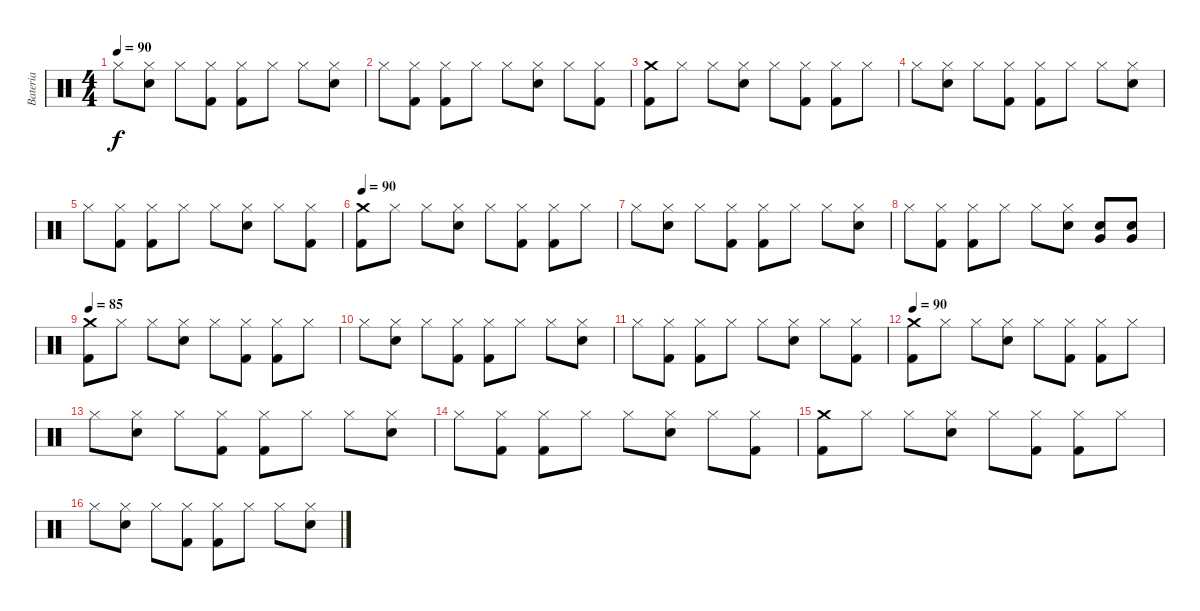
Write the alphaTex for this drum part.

\track ("Bateria" "Bateria") {instrument percussion}
\staff {score}
\articulation defaults
\ts (4 4)
\tempo 90
\clef neutral
\ks c "Hi-Hat (closed)".8{dy f}
("Hi-Hat (closed)" "Snare (hit) 2").8 "Hi-Hat (closed)".8 ("Hi-Hat (closed)" "Kick (hit) 2").8 ("Hi-Hat (closed)" "Kick (hit) 2").8 "Hi-Hat (closed)".8 "Hi-Hat (closed)".8 ("Hi-Hat (closed)" "Snare (hit) 2").8 |
"Hi-Hat (closed)".8 ("Hi-Hat (closed)" "Kick (hit) 2").8 ("Hi-Hat (closed)" "Kick (hit) 2").8 "Hi-Hat (closed)".8 "Hi-Hat (closed)".8 ("Hi-Hat (closed)" "Snare (hit) 2").8 "Hi-Hat (closed)".8 ("Hi-Hat (closed)" "Kick (hit) 2").8 |
("Crash medium (hit)" "Kick (hit) 2").8 "Hi-Hat (closed)".8 "Hi-Hat (closed)".8 ("Hi-Hat (closed)" "Snare (hit) 2").8 "Hi-Hat (closed)".8 ("Hi-Hat (closed)" "Kick (hit) 2").8 ("Hi-Hat (closed)" "Kick (hit) 2").8 "Hi-Hat (closed)".8 |
"Hi-Hat (closed)".8 ("Hi-Hat (closed)" "Snare (hit) 2").8 "Hi-Hat (closed)".8 ("Hi-Hat (closed)" "Kick (hit) 2").8 ("Hi-Hat (closed)" "Kick (hit) 2").8 "Hi-Hat (closed)".8 "Hi-Hat (closed)".8 ("Hi-Hat (closed)" "Snare (hit) 2").8 |
"Hi-Hat (closed)".8 ("Hi-Hat (closed)" "Kick (hit) 2").8 ("Hi-Hat (closed)" "Kick (hit) 2").8 "Hi-Hat (closed)".8 "Hi-Hat (closed)".8 ("Hi-Hat (closed)" "Snare (hit) 2").8 "Hi-Hat (closed)".8 ("Hi-Hat (closed)" "Kick (hit) 2").8 |
\tempo 90
("Crash medium (hit)" "Kick (hit) 2").8 "Hi-Hat (closed)".8 "Hi-Hat (closed)".8 ("Hi-Hat (closed)" "Snare (hit) 2").8 "Hi-Hat (closed)".8 ("Hi-Hat (closed)" "Kick (hit) 2").8 ("Hi-Hat (closed)" "Kick (hit) 2").8 "Hi-Hat (closed)".8 |
"Hi-Hat (closed)".8 ("Hi-Hat (closed)" "Snare (hit) 2").8 "Hi-Hat (closed)".8 ("Hi-Hat (closed)" "Kick (hit) 2").8 ("Hi-Hat (closed)" "Kick (hit) 2").8 "Hi-Hat (closed)".8 "Hi-Hat (closed)".8 ("Hi-Hat (closed)" "Snare (hit) 2").8 |
"Hi-Hat (closed)".8 ("Hi-Hat (closed)" "Kick (hit) 2").8 ("Hi-Hat (closed)" "Kick (hit) 2").8 "Hi-Hat (closed)".8 "Hi-Hat (closed)".8 ("Hi-Hat (closed)" "Snare (hit) 2").8 ("Very Low Tom (hit)" "Snare (hit) 2").8 ("Very Low Tom (hit)" "Snare (hit) 2").8 |
\tempo 85
("Crash medium (hit)" "Kick (hit) 2").8 "Hi-Hat (closed)".8 "Hi-Hat (closed)".8 ("Hi-Hat (closed)" "Snare (hit) 2").8 "Hi-Hat (closed)".8 ("Hi-Hat (closed)" "Kick (hit) 2").8 ("Hi-Hat (closed)" "Kick (hit) 2").8 "Hi-Hat (closed)".8 |
"Hi-Hat (closed)".8 ("Hi-Hat (closed)" "Snare (hit) 2").8 "Hi-Hat (closed)".8 ("Hi-Hat (closed)" "Kick (hit) 2").8 ("Hi-Hat (closed)" "Kick (hit) 2").8 "Hi-Hat (closed)".8 "Hi-Hat (closed)".8 ("Hi-Hat (closed)" "Snare (hit) 2").8 |
"Hi-Hat (closed)".8 ("Hi-Hat (closed)" "Kick (hit) 2").8 ("Hi-Hat (closed)" "Kick (hit) 2").8 "Hi-Hat (closed)".8 "Hi-Hat (closed)".8 ("Hi-Hat (closed)" "Snare (hit) 2").8 "Hi-Hat (closed)".8 ("Hi-Hat (closed)" "Kick (hit) 2").8 |
\tempo 90
("Crash medium (hit)" "Kick (hit) 2").8 "Hi-Hat (closed)".8 "Hi-Hat (closed)".8 ("Hi-Hat (closed)" "Snare (hit) 2").8 "Hi-Hat (closed)".8 ("Hi-Hat (closed)" "Kick (hit) 2").8 ("Hi-Hat (closed)" "Kick (hit) 2").8 "Hi-Hat (closed)".8 |
"Hi-Hat (closed)".8 ("Hi-Hat (closed)" "Snare (hit) 2").8 "Hi-Hat (closed)".8 ("Hi-Hat (closed)" "Kick (hit) 2").8 ("Hi-Hat (closed)" "Kick (hit) 2").8 "Hi-Hat (closed)".8 "Hi-Hat (closed)".8 ("Hi-Hat (closed)" "Snare (hit) 2").8 |
"Hi-Hat (closed)".8 ("Hi-Hat (closed)" "Kick (hit) 2").8 ("Hi-Hat (closed)" "Kick (hit) 2").8 "Hi-Hat (closed)".8 "Hi-Hat (closed)".8 ("Hi-Hat (closed)" "Snare (hit) 2").8 "Hi-Hat (closed)".8 ("Hi-Hat (closed)" "Kick (hit) 2").8 |
("Crash medium (hit)" "Kick (hit) 2").8 "Hi-Hat (closed)".8 "Hi-Hat (closed)".8 ("Hi-Hat (closed)" "Snare (hit) 2").8 "Hi-Hat (closed)".8 ("Hi-Hat (closed)" "Kick (hit) 2").8 ("Hi-Hat (closed)" "Kick (hit) 2").8 "Hi-Hat (closed)".8 |
"Hi-Hat (closed)".8 ("Hi-Hat (closed)" "Snare (hit) 2").8 "Hi-Hat (closed)".8 ("Hi-Hat (closed)" "Kick (hit) 2").8 ("Hi-Hat (closed)" "Kick (hit) 2").8 "Hi-Hat (closed)".8 "Hi-Hat (closed)".8 ("Hi-Hat (closed)" "Snare (hit) 2").8
